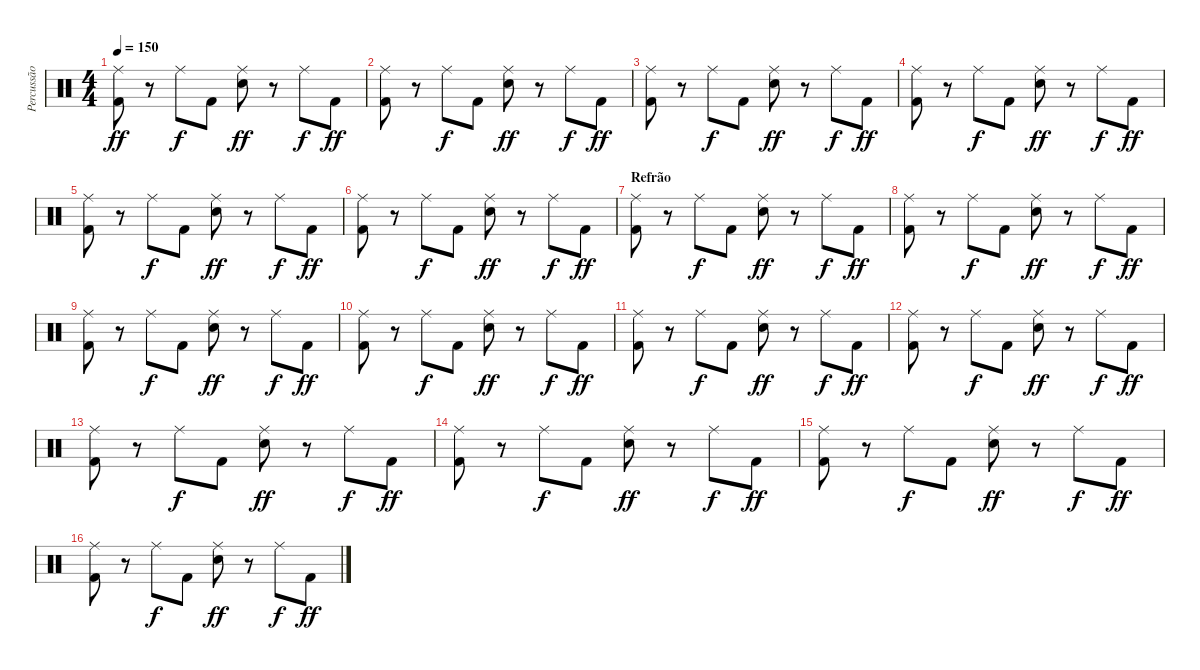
\track ("Percussão" "Percussão") {instrument percussion}
\staff {score}
\articulation defaults
\ts (4 4)
\tempo 150
\clef neutral
\ks c
("Kick (hit) 2" "Ride (middle)").8{dy ff} r.8 "Ride (middle)".8{dy f} "Kick (hit) 2".8 ("Electric Snare (hit)" "Ride (middle)").8{dy ff} r.8 "Ride (middle)".8{dy f} "Kick (hit) 2".8{dy ff} |
("Kick (hit) 2" "Ride (middle)").8 r.8 "Ride (middle)".8{dy f} "Kick (hit) 2".8 ("Electric Snare (hit)" "Ride (middle)").8{dy ff} r.8 "Ride (middle)".8{dy f} "Kick (hit) 2".8{dy ff} |
("Kick (hit) 2" "Ride (middle)").8 r.8 "Ride (middle)".8{dy f} "Kick (hit) 2".8 ("Electric Snare (hit)" "Ride (middle)").8{dy ff} r.8 "Ride (middle)".8{dy f} "Kick (hit) 2".8{dy ff} |
("Kick (hit) 2" "Ride (middle)").8 r.8 "Ride (middle)".8{dy f} "Kick (hit) 2".8 ("Electric Snare (hit)" "Ride (middle)").8{dy ff} r.8 "Ride (middle)".8{dy f} "Kick (hit) 2".8{dy ff} |
("Kick (hit) 2" "Ride (middle)").8 r.8 "Ride (middle)".8{dy f} "Kick (hit) 2".8 ("Electric Snare (hit)" "Ride (middle)").8{dy ff} r.8 "Ride (middle)".8{dy f} "Kick (hit) 2".8{dy ff} |
("Kick (hit) 2" "Ride (middle)").8 r.8 "Ride (middle)".8{dy f} "Kick (hit) 2".8 ("Electric Snare (hit)" "Ride (middle)").8{dy ff} r.8 "Ride (middle)".8{dy f} "Kick (hit) 2".8{dy ff} |
\section ("" "Refrão")
("Kick (hit) 2" "Ride (middle)").8 r.8 "Ride (middle)".8{dy f} "Kick (hit) 2".8 ("Electric Snare (hit)" "Ride (middle)").8{dy ff} r.8 "Ride (middle)".8{dy f} "Kick (hit) 2".8{dy ff} |
("Kick (hit) 2" "Ride (middle)").8 r.8 "Ride (middle)".8{dy f} "Kick (hit) 2".8 ("Electric Snare (hit)" "Ride (middle)").8{dy ff} r.8 "Ride (middle)".8{dy f} "Kick (hit) 2".8{dy ff} |
("Kick (hit) 2" "Ride (middle)").8 r.8 "Ride (middle)".8{dy f} "Kick (hit) 2".8 ("Electric Snare (hit)" "Ride (middle)").8{dy ff} r.8 "Ride (middle)".8{dy f} "Kick (hit) 2".8{dy ff} |
("Kick (hit) 2" "Ride (middle)").8 r.8 "Ride (middle)".8{dy f} "Kick (hit) 2".8 ("Electric Snare (hit)" "Ride (middle)").8{dy ff} r.8 "Ride (middle)".8{dy f} "Kick (hit) 2".8{dy ff} |
("Kick (hit) 2" "Ride (middle)").8 r.8 "Ride (middle)".8{dy f} "Kick (hit) 2".8 ("Electric Snare (hit)" "Ride (middle)").8{dy ff} r.8 "Ride (middle)".8{dy f} "Kick (hit) 2".8{dy ff} |
("Kick (hit) 2" "Ride (middle)").8 r.8 "Ride (middle)".8{dy f} "Kick (hit) 2".8 ("Electric Snare (hit)" "Ride (middle)").8{dy ff} r.8 "Ride (middle)".8{dy f} "Kick (hit) 2".8{dy ff} |
("Kick (hit) 2" "Ride (middle)").8 r.8 "Ride (middle)".8{dy f} "Kick (hit) 2".8 ("Electric Snare (hit)" "Ride (middle)").8{dy ff} r.8 "Ride (middle)".8{dy f} "Kick (hit) 2".8{dy ff} |
("Kick (hit) 2" "Ride (middle)").8 r.8 "Ride (middle)".8{dy f} "Kick (hit) 2".8 ("Electric Snare (hit)" "Ride (middle)").8{dy ff} r.8 "Ride (middle)".8{dy f} "Kick (hit) 2".8{dy ff} |
("Kick (hit) 2" "Ride (middle)").8 r.8 "Ride (middle)".8{dy f} "Kick (hit) 2".8 ("Electric Snare (hit)" "Ride (middle)").8{dy ff} r.8 "Ride (middle)".8{dy f} "Kick (hit) 2".8{dy ff} |
("Kick (hit) 2" "Ride (middle)").8 r.8 "Ride (middle)".8{dy f} "Kick (hit) 2".8 ("Electric Snare (hit)" "Ride (middle)").8{dy ff} r.8 "Ride (middle)".8{dy f} "Kick (hit) 2".8{dy ff}
